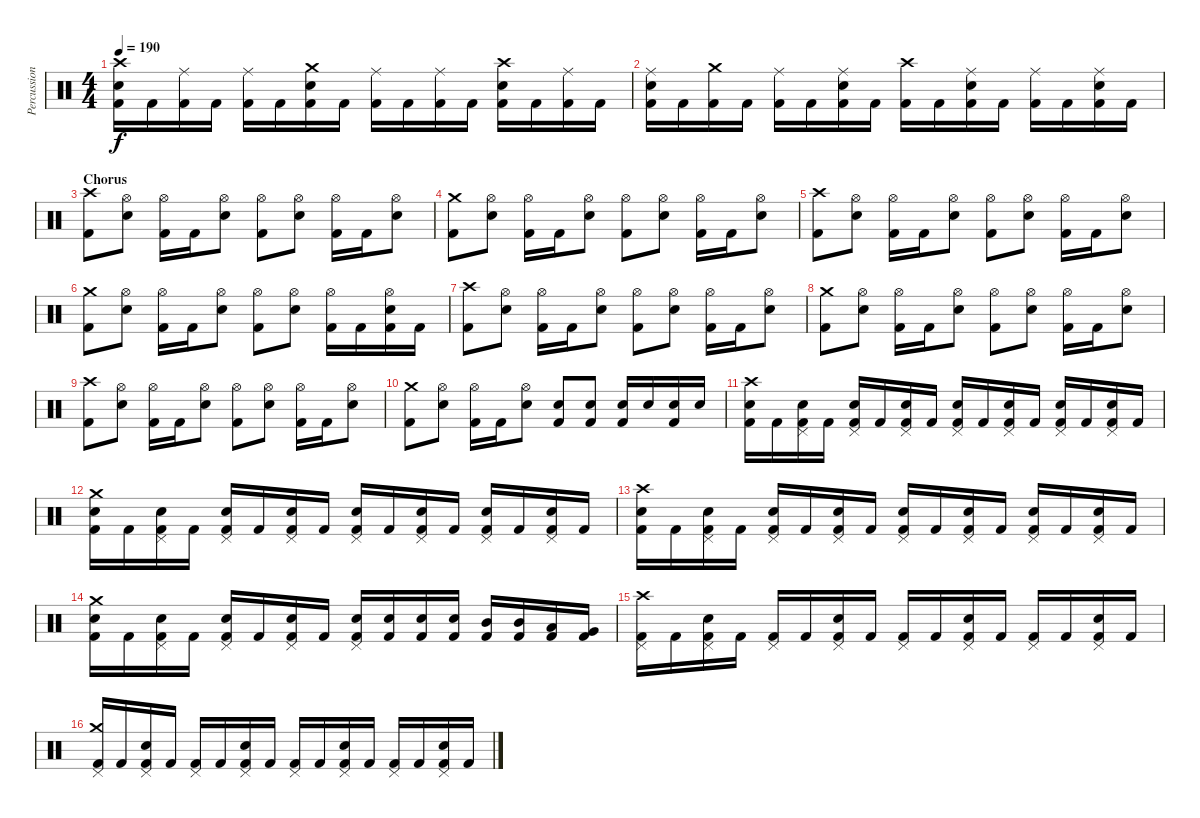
\track ("Percussion" "Percussion") {instrument percussion}
\staff {score}
\articulation defaults
\ts (4 4)
\tempo 190
\clef neutral
\ks c
("Crash high (hit)" "Snare (hit) 2" "Kick (hit) 2").16{dy f} "Kick (hit) 2".16 ("Ride (middle)" "Kick (hit) 2").16 "Kick (hit) 2".16 ("Ride (middle)" "Kick (hit) 2").16 "Kick (hit) 2".16 ("Crash medium (hit)" "Snare (hit) 2" "Kick (hit) 2").16 "Kick (hit) 2".16 ("Ride (middle)" "Kick (hit) 2").16 "Kick (hit) 2".16 ("Ride (middle)" "Kick (hit) 2").16 "Kick (hit) 2".16 ("Crash high (hit)" "Snare (hit) 2" "Kick (hit) 2").16 "Kick (hit) 2".16 ("Ride (middle)" "Kick (hit) 2").16 "Kick (hit) 2".16 |
("Ride (middle)" "Snare (hit) 2" "Kick (hit) 2").16 "Kick (hit) 2".16 ("Crash medium (hit)" "Kick (hit) 2").16 "Kick (hit) 2".16 ("Ride (middle)" "Kick (hit) 2").16 "Kick (hit) 2".16 ("Ride (middle)" "Snare (hit) 2" "Kick (hit) 2").16 "Kick (hit) 2".16 ("Crash high (hit)" "Kick (hit) 2").16 "Kick (hit) 2".16 ("Ride (middle)" "Snare (hit) 2" "Kick (hit) 2").16 "Kick (hit) 2".16 ("Ride (middle)" "Kick (hit) 2").16 "Kick (hit) 2".16 ("Ride (middle)" "Snare (hit) 2" "Kick (hit) 2").16 "Kick (hit) 2".16 |
\section ("" "Chorus")
("Crash high (hit)" "Kick (hit) 2").8 ("Hi-Hat (open)" "Snare (hit) 2").8 ("Hi-Hat (open)" "Kick (hit) 2").16 "Kick (hit) 2".16 ("Hi-Hat (open)" "Snare (hit) 2").8 ("Hi-Hat (open)" "Kick (hit) 2").8 ("Hi-Hat (open)" "Snare (hit) 2").8 ("Hi-Hat (open)" "Kick (hit) 2").16 "Kick (hit) 2".16 ("Hi-Hat (open)" "Snare (hit) 2").8 |
("Crash medium (hit)" "Kick (hit) 2").8 ("Hi-Hat (open)" "Snare (hit) 2").8 ("Hi-Hat (open)" "Kick (hit) 2").16 "Kick (hit) 2".16 ("Hi-Hat (open)" "Snare (hit) 2").8 ("Hi-Hat (open)" "Kick (hit) 2").8 ("Hi-Hat (open)" "Snare (hit) 2").8 ("Hi-Hat (open)" "Kick (hit) 2").16 "Kick (hit) 2".16 ("Hi-Hat (open)" "Snare (hit) 2").8 |
("Crash high (hit)" "Kick (hit) 2").8 ("Hi-Hat (open)" "Snare (hit) 2").8 ("Hi-Hat (open)" "Kick (hit) 2").16 "Kick (hit) 2".16 ("Hi-Hat (open)" "Snare (hit) 2").8 ("Hi-Hat (open)" "Kick (hit) 2").8 ("Hi-Hat (open)" "Snare (hit) 2").8 ("Hi-Hat (open)" "Kick (hit) 2").16 "Kick (hit) 2".16 ("Hi-Hat (open)" "Snare (hit) 2").8 |
("Crash medium (hit)" "Kick (hit) 2").8 ("Hi-Hat (open)" "Snare (hit) 2").8 ("Hi-Hat (open)" "Kick (hit) 2").16 "Kick (hit) 2".16 ("Hi-Hat (open)" "Snare (hit) 2").8 ("Hi-Hat (open)" "Kick (hit) 2").8 ("Hi-Hat (open)" "Snare (hit) 2").8 ("Hi-Hat (open)" "Kick (hit) 2").16 "Kick (hit) 2".16 ("Hi-Hat (open)" "Snare (hit) 2" "Kick (hit) 2").16 "Kick (hit) 2".16 |
("Crash high (hit)" "Kick (hit) 2").8 ("Hi-Hat (open)" "Snare (hit) 2").8 ("Hi-Hat (open)" "Kick (hit) 2").16 "Kick (hit) 2".16 ("Hi-Hat (open)" "Snare (hit) 2").8 ("Hi-Hat (open)" "Kick (hit) 2").8 ("Hi-Hat (open)" "Snare (hit) 2").8 ("Hi-Hat (open)" "Kick (hit) 2").16 "Kick (hit) 2".16 ("Hi-Hat (open)" "Snare (hit) 2").8 |
("Crash medium (hit)" "Kick (hit) 2").8 ("Hi-Hat (open)" "Snare (hit) 2").8 ("Hi-Hat (open)" "Kick (hit) 2").16 "Kick (hit) 2".16 ("Hi-Hat (open)" "Snare (hit) 2").8 ("Hi-Hat (open)" "Kick (hit) 2").8 ("Hi-Hat (open)" "Snare (hit) 2").8 ("Hi-Hat (open)" "Kick (hit) 2").16 "Kick (hit) 2".16 ("Hi-Hat (open)" "Snare (hit) 2").8 |
("Crash high (hit)" "Kick (hit) 2").8 ("Hi-Hat (open)" "Snare (hit) 2").8 ("Hi-Hat (open)" "Kick (hit) 2").16 "Kick (hit) 2".16 ("Hi-Hat (open)" "Snare (hit) 2").8 ("Hi-Hat (open)" "Kick (hit) 2").8 ("Hi-Hat (open)" "Snare (hit) 2").8 ("Hi-Hat (open)" "Kick (hit) 2").16 "Kick (hit) 2".16 ("Hi-Hat (open)" "Snare (hit) 2").8 |
("Crash medium (hit)" "Kick (hit) 2").8 ("Hi-Hat (open)" "Snare (hit) 2").8 ("Hi-Hat (open)" "Kick (hit) 2").16 "Kick (hit) 2".16 ("Hi-Hat (open)" "Snare (hit) 2").8 ("Snare (hit) 2" "Kick (hit) 2").8 ("Snare (hit) 2" "Kick (hit) 2").8 ("Snare (hit) 2" "Kick (hit) 2").16 "Snare (hit) 2".16 ("Snare (hit) 2" "Kick (hit) 2").16 "Snare (hit) 2".16 |
("Crash high (hit)" "Snare (hit) 2" "Kick (hit) 2").16 "Kick (hit) 2".16 ("Pedal Hi-Hat (hit)" "Snare (hit) 2" "Kick (hit) 2").16 "Kick (hit) 2".16 ("Pedal Hi-Hat (hit)" "Snare (hit) 2" "Kick (hit) 2").16 "Kick (hit) 2".16 ("Pedal Hi-Hat (hit)" "Snare (hit) 2" "Kick (hit) 2").16 "Kick (hit) 2".16 ("Pedal Hi-Hat (hit)" "Snare (hit) 2" "Kick (hit) 2").16 "Kick (hit) 2".16 ("Pedal Hi-Hat (hit)" "Snare (hit) 2" "Kick (hit) 2").16 "Kick (hit) 2".16 ("Pedal Hi-Hat (hit)" "Snare (hit) 2" "Kick (hit) 2").16 "Kick (hit) 2".16 ("Pedal Hi-Hat (hit)" "Snare (hit) 2" "Kick (hit) 2").16 "Kick (hit) 2".16 |
("Crash medium (hit)" "Snare (hit) 2" "Kick (hit) 2").16 "Kick (hit) 2".16 ("Pedal Hi-Hat (hit)" "Snare (hit) 2" "Kick (hit) 2").16 "Kick (hit) 2".16 ("Pedal Hi-Hat (hit)" "Snare (hit) 2" "Kick (hit) 2").16 "Kick (hit) 2".16 ("Pedal Hi-Hat (hit)" "Snare (hit) 2" "Kick (hit) 2").16 "Kick (hit) 2".16 ("Pedal Hi-Hat (hit)" "Snare (hit) 2" "Kick (hit) 2").16 "Kick (hit) 2".16 ("Pedal Hi-Hat (hit)" "Snare (hit) 2" "Kick (hit) 2").16 "Kick (hit) 2".16 ("Pedal Hi-Hat (hit)" "Snare (hit) 2" "Kick (hit) 2").16 "Kick (hit) 2".16 ("Pedal Hi-Hat (hit)" "Snare (hit) 2" "Kick (hit) 2").16 "Kick (hit) 2".16 |
("Crash high (hit)" "Snare (hit) 2" "Kick (hit) 2").16 "Kick (hit) 2".16 ("Pedal Hi-Hat (hit)" "Snare (hit) 2" "Kick (hit) 2").16 "Kick (hit) 2".16 ("Pedal Hi-Hat (hit)" "Snare (hit) 2" "Kick (hit) 2").16 "Kick (hit) 2".16 ("Pedal Hi-Hat (hit)" "Snare (hit) 2" "Kick (hit) 2").16 "Kick (hit) 2".16 ("Pedal Hi-Hat (hit)" "Snare (hit) 2" "Kick (hit) 2").16 "Kick (hit) 2".16 ("Pedal Hi-Hat (hit)" "Snare (hit) 2" "Kick (hit) 2").16 "Kick (hit) 2".16 ("Pedal Hi-Hat (hit)" "Snare (hit) 2" "Kick (hit) 2").16 "Kick (hit) 2".16 ("Pedal Hi-Hat (hit)" "Snare (hit) 2" "Kick (hit) 2").16 "Kick (hit) 2".16 |
("Crash medium (hit)" "Snare (hit) 2" "Kick (hit) 2").16 "Kick (hit) 2".16 ("Pedal Hi-Hat (hit)" "Snare (hit) 2" "Kick (hit) 2").16 "Kick (hit) 2".16 ("Pedal Hi-Hat (hit)" "Snare (hit) 2" "Kick (hit) 2").16 "Kick (hit) 2".16 ("Pedal Hi-Hat (hit)" "Snare (hit) 2" "Kick (hit) 2").16 "Kick (hit) 2".16 ("Pedal Hi-Hat (hit)" "Snare (hit) 2" "Kick (hit) 2").16 ("Snare (hit) 2" "Kick (hit) 2").16 ("Snare (hit) 2" "Kick (hit) 2").16 ("Snare (hit) 2" "Kick (hit) 2").16 ("Mid Tom (hit)" "Kick (hit) 2").16 ("Mid Tom (hit)" "Kick (hit) 2").16 ("Low Tom (hit)" "Kick (hit) 2").16 ("Very Low Tom (hit)" "Kick (hit) 2").16 |
("Crash high (hit)" "Pedal Hi-Hat (hit)" "Kick (hit) 2").16 "Kick (hit) 2".16 ("Pedal Hi-Hat (hit)" "Snare (hit) 2" "Kick (hit) 2").16 "Kick (hit) 2".16 ("Pedal Hi-Hat (hit)" "Kick (hit) 2").16 "Kick (hit) 2".16 ("Pedal Hi-Hat (hit)" "Snare (hit) 2" "Kick (hit) 2").16 "Kick (hit) 2".16 ("Pedal Hi-Hat (hit)" "Kick (hit) 2").16 "Kick (hit) 2".16 ("Pedal Hi-Hat (hit)" "Snare (hit) 2" "Kick (hit) 2").16 "Kick (hit) 2".16 ("Pedal Hi-Hat (hit)" "Kick (hit) 2").16 "Kick (hit) 2".16 ("Pedal Hi-Hat (hit)" "Snare (hit) 2" "Kick (hit) 2").16 "Kick (hit) 2".16 |
("Crash medium (hit)" "Pedal Hi-Hat (hit)" "Kick (hit) 2").16 "Kick (hit) 2".16 ("Pedal Hi-Hat (hit)" "Snare (hit) 2" "Kick (hit) 2").16 "Kick (hit) 2".16 ("Pedal Hi-Hat (hit)" "Kick (hit) 2").16 "Kick (hit) 2".16 ("Pedal Hi-Hat (hit)" "Snare (hit) 2" "Kick (hit) 2").16 "Kick (hit) 2".16 ("Pedal Hi-Hat (hit)" "Kick (hit) 2").16 "Kick (hit) 2".16 ("Pedal Hi-Hat (hit)" "Snare (hit) 2" "Kick (hit) 2").16 "Kick (hit) 2".16 ("Pedal Hi-Hat (hit)" "Kick (hit) 2").16 "Kick (hit) 2".16 ("Pedal Hi-Hat (hit)" "Snare (hit) 2" "Kick (hit) 2").16 "Kick (hit) 2".16
